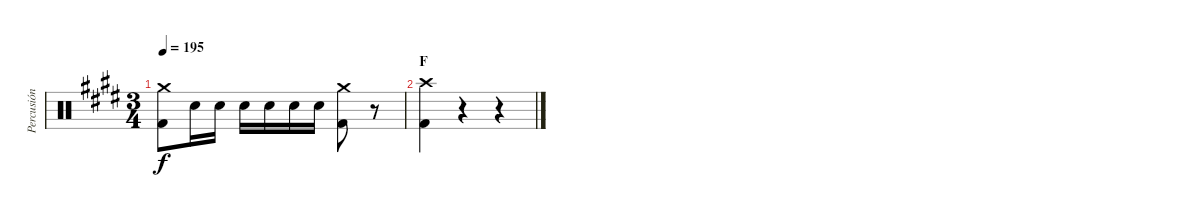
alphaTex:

\track ("Percusión" "Percusión") {instrument percussion}
\staff {score}
\articulation defaults
\ts (3 4)
\tempo 195
\clef neutral
\ks e
("Crash medium (hit)" "Kick (hit) 2").8{dy f} "Electric Snare (hit)".16 "Electric Snare (hit)".16 "Electric Snare (hit)".16 "Electric Snare (hit)".16 "Electric Snare (hit)".16 "Electric Snare (hit)".16 ("Crash medium (hit)" "Kick (hit) 2").8 r.8 |
\section ("" "F")
("Crash high (hit)" "Kick (hit) 2").4 r.4 r.4
